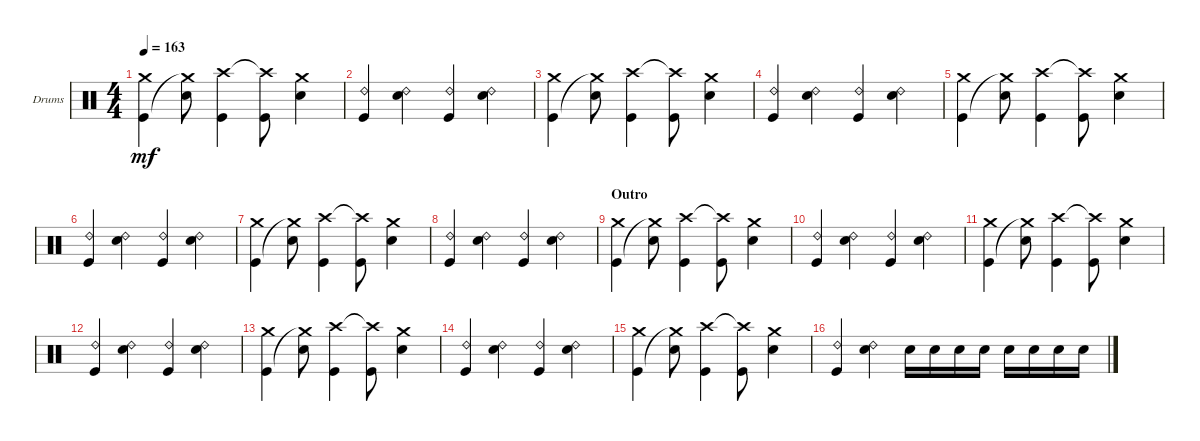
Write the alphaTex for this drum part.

\bracketExtendMode groupsimilarinstruments
\firstSystemTrackNameOrientation horizontal
\otherSystemsTrackNameOrientation horizontal
\track ("Drums" "Drums") {instrument percussion}
\staff {score}
\articulation defaults
\ts (4 4)
\tempo 163
\clef neutral
\scale
0.333333
\ks c
("Crash medium (hit)" "Kick (hit)").4{dy mf} ("Snare (hit) 2" "Crash medium (hit)"{t}).8 ("Kick (hit)" "Crash high (hit)").4 ("Kick (hit)" "Crash high (hit)"{t}).8 ("Snare (hit) 2" "Crash medium (hit)").4 |
\scale
0.333333 ("Ride (bell) 2" "Kick (hit)").4 ("Ride (bell) 2" "Snare (hit) 2").4 ("Ride (bell) 2" "Kick (hit)").4 ("Ride (bell) 2" "Snare (hit) 2").4 |
\scale
0.333333 ("Crash medium (hit)" "Kick (hit)").4 ("Snare (hit) 2" "Crash medium (hit)"{t}).8 ("Kick (hit)" "Crash high (hit)").4 ("Kick (hit)" "Crash high (hit)"{t}).8 ("Snare (hit) 2" "Crash medium (hit)").4 |
\scale
0.333333 ("Ride (bell) 2" "Kick (hit)").4 ("Ride (bell) 2" "Snare (hit) 2").4 ("Ride (bell) 2" "Kick (hit)").4 ("Ride (bell) 2" "Snare (hit) 2").4 |
\scale
0.333333 ("Crash medium (hit)" "Kick (hit)").4 ("Snare (hit) 2" "Crash medium (hit)"{t}).8 ("Kick (hit)" "Crash high (hit)").4 ("Kick (hit)" "Crash high (hit)"{t}).8 ("Snare (hit) 2" "Crash medium (hit)").4 |
\scale
0.333333 ("Ride (bell) 2" "Kick (hit)").4 ("Ride (bell) 2" "Snare (hit) 2").4 ("Ride (bell) 2" "Kick (hit)").4 ("Ride (bell) 2" "Snare (hit) 2").4 |
\scale
0.333333 ("Crash medium (hit)" "Kick (hit)").4 ("Snare (hit) 2" "Crash medium (hit)"{t}).8 ("Kick (hit)" "Crash high (hit)").4 ("Kick (hit)" "Crash high (hit)"{t}).8 ("Snare (hit) 2" "Crash medium (hit)").4 |
\scale
0.333333 ("Ride (bell) 2" "Kick (hit)").4 ("Ride (bell) 2" "Snare (hit) 2").4 ("Ride (bell) 2" "Kick (hit)").4 ("Ride (bell) 2" "Snare (hit) 2").4 |
\section ("" "Outro")
\scale
0.333333 ("Crash medium (hit)" "Kick (hit)").4 ("Snare (hit) 2" "Crash medium (hit)"{t}).8 ("Kick (hit)" "Crash high (hit)").4 ("Kick (hit)" "Crash high (hit)"{t}).8 ("Snare (hit) 2" "Crash medium (hit)").4 |
\scale
0.333333 ("Ride (bell) 2" "Kick (hit)").4 ("Ride (bell) 2" "Snare (hit) 2").4 ("Ride (bell) 2" "Kick (hit)").4 ("Ride (bell) 2" "Snare (hit) 2").4 |
\scale
0.333333 ("Crash medium (hit)" "Kick (hit)").4 ("Snare (hit) 2" "Crash medium (hit)"{t}).8 ("Kick (hit)" "Crash high (hit)").4 ("Kick (hit)" "Crash high (hit)"{t}).8 ("Snare (hit) 2" "Crash medium (hit)").4 |
\scale
0.333333 ("Ride (bell) 2" "Kick (hit)").4 ("Ride (bell) 2" "Snare (hit) 2").4 ("Ride (bell) 2" "Kick (hit)").4 ("Ride (bell) 2" "Snare (hit) 2").4 |
\scale
0.333333 ("Crash medium (hit)" "Kick (hit)").4 ("Snare (hit) 2" "Crash medium (hit)"{t}).8 ("Kick (hit)" "Crash high (hit)").4 ("Kick (hit)" "Crash high (hit)"{t}).8 ("Snare (hit) 2" "Crash medium (hit)").4 |
\scale
0.333333 ("Ride (bell) 2" "Kick (hit)").4 ("Ride (bell) 2" "Snare (hit) 2").4 ("Ride (bell) 2" "Kick (hit)").4 ("Ride (bell) 2" "Snare (hit) 2").4 |
\scale
0.333333 ("Crash medium (hit)" "Kick (hit)").4 ("Snare (hit) 2" "Crash medium (hit)"{t}).8 ("Kick (hit)" "Crash high (hit)").4 ("Kick (hit)" "Crash high (hit)"{t}).8 ("Snare (hit) 2" "Crash medium (hit)").4 |
\scale
0.333333 ("Ride (bell) 2" "Kick (hit)").4 ("Ride (bell) 2" "Snare (hit) 2").4 "Snare (hit) 2".16 "Snare (hit) 2".16 "Snare (hit) 2".16 "Snare (hit) 2".16 "Snare (hit) 2".16 "Snare (hit) 2".16 "Snare (hit) 2".16 "Snare (hit) 2".16
